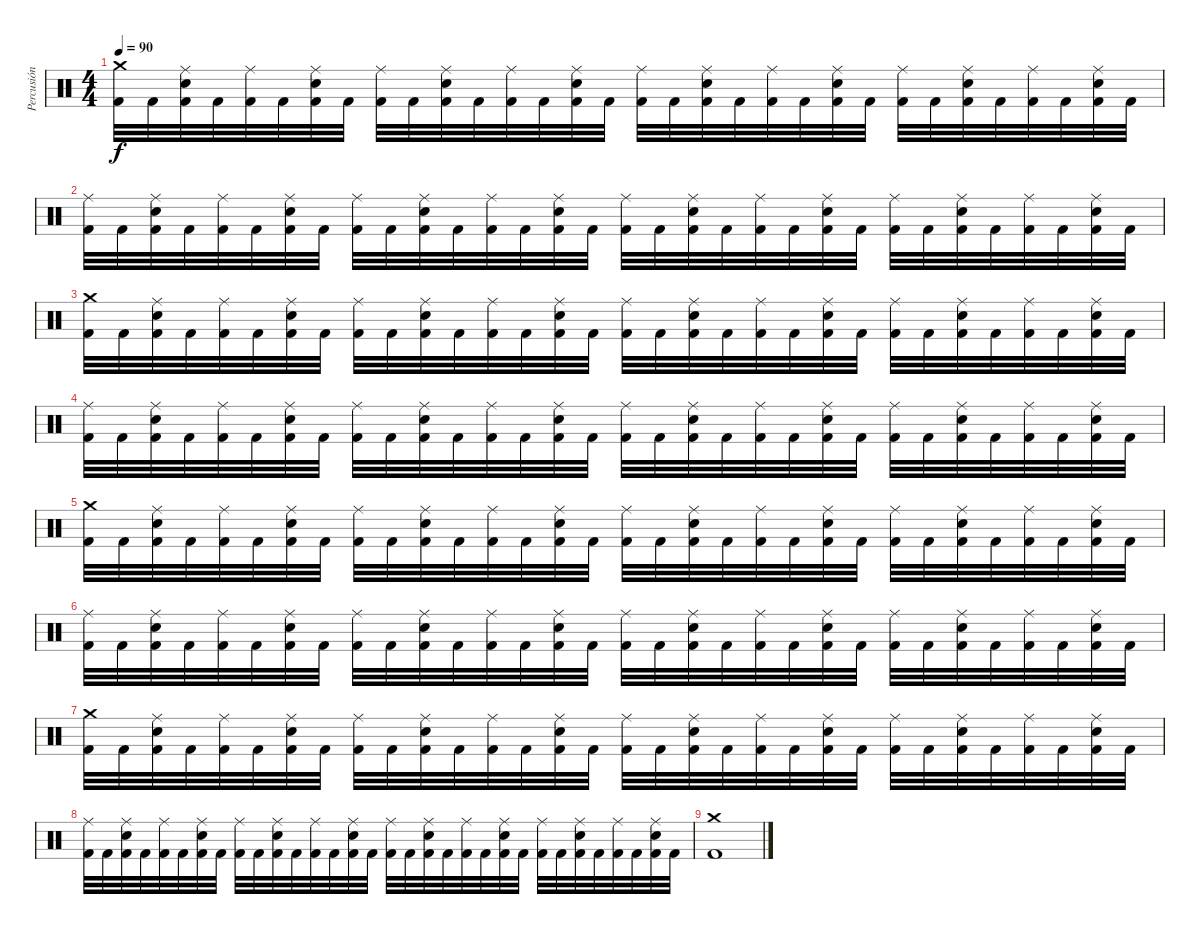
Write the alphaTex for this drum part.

\track ("Percusión" "Percusión") {instrument percussion}
\staff {score}
\articulation defaults
\ts (4 4)
\tempo 90
\clef neutral
\ks c
("Crash medium (hit)" "Kick (hit) 2").32{dy f} "Kick (hit) 2".32 ("Ride (middle)" "Snare (hit) 2" "Kick (hit) 2").32 "Kick (hit) 2".32 ("Ride (middle)" "Kick (hit) 2").32 "Kick (hit) 2".32 ("Ride (middle)" "Snare (hit) 2" "Kick (hit) 2").32 "Kick (hit) 2".32 ("Ride (middle)" "Kick (hit) 2").32 "Kick (hit) 2".32 ("Ride (middle)" "Snare (hit) 2" "Kick (hit) 2").32 "Kick (hit) 2".32 ("Ride (middle)" "Kick (hit) 2").32 "Kick (hit) 2".32 ("Ride (middle)" "Snare (hit) 2" "Kick (hit) 2").32 "Kick (hit) 2".32 ("Ride (middle)" "Kick (hit) 2").32 "Kick (hit) 2".32 ("Ride (middle)" "Snare (hit) 2" "Kick (hit) 2").32 "Kick (hit) 2".32 ("Ride (middle)" "Kick (hit) 2").32 "Kick (hit) 2".32 ("Ride (middle)" "Snare (hit) 2" "Kick (hit) 2").32 "Kick (hit) 2".32 ("Ride (middle)" "Kick (hit) 2").32 "Kick (hit) 2".32 ("Ride (middle)" "Snare (hit) 2" "Kick (hit) 2").32 "Kick (hit) 2".32 ("Ride (middle)" "Kick (hit) 2").32 "Kick (hit) 2".32 ("Ride (middle)" "Snare (hit) 2" "Kick (hit) 2").32 "Kick (hit) 2".32 |
("Ride (middle)" "Kick (hit) 2").32 "Kick (hit) 2".32 ("Ride (middle)" "Snare (hit) 2" "Kick (hit) 2").32 "Kick (hit) 2".32 ("Ride (middle)" "Kick (hit) 2").32 "Kick (hit) 2".32 ("Ride (middle)" "Snare (hit) 2" "Kick (hit) 2").32 "Kick (hit) 2".32 ("Ride (middle)" "Kick (hit) 2").32 "Kick (hit) 2".32 ("Ride (middle)" "Snare (hit) 2" "Kick (hit) 2").32 "Kick (hit) 2".32 ("Ride (middle)" "Kick (hit) 2").32 "Kick (hit) 2".32 ("Ride (middle)" "Snare (hit) 2" "Kick (hit) 2").32 "Kick (hit) 2".32 ("Ride (middle)" "Kick (hit) 2").32 "Kick (hit) 2".32 ("Ride (middle)" "Snare (hit) 2" "Kick (hit) 2").32 "Kick (hit) 2".32 ("Ride (middle)" "Kick (hit) 2").32 "Kick (hit) 2".32 ("Ride (middle)" "Snare (hit) 2" "Kick (hit) 2").32 "Kick (hit) 2".32 ("Ride (middle)" "Kick (hit) 2").32 "Kick (hit) 2".32 ("Ride (middle)" "Snare (hit) 2" "Kick (hit) 2").32 "Kick (hit) 2".32 ("Ride (middle)" "Kick (hit) 2").32 "Kick (hit) 2".32 ("Ride (middle)" "Snare (hit) 2" "Kick (hit) 2").32 "Kick (hit) 2".32 |
("Crash medium (hit)" "Kick (hit) 2").32 "Kick (hit) 2".32 ("Ride (middle)" "Snare (hit) 2" "Kick (hit) 2").32 "Kick (hit) 2".32 ("Ride (middle)" "Kick (hit) 2").32 "Kick (hit) 2".32 ("Ride (middle)" "Snare (hit) 2" "Kick (hit) 2").32 "Kick (hit) 2".32 ("Ride (middle)" "Kick (hit) 2").32 "Kick (hit) 2".32 ("Ride (middle)" "Snare (hit) 2" "Kick (hit) 2").32 "Kick (hit) 2".32 ("Ride (middle)" "Kick (hit) 2").32 "Kick (hit) 2".32 ("Ride (middle)" "Snare (hit) 2" "Kick (hit) 2").32 "Kick (hit) 2".32 ("Ride (middle)" "Kick (hit) 2").32 "Kick (hit) 2".32 ("Ride (middle)" "Snare (hit) 2" "Kick (hit) 2").32 "Kick (hit) 2".32 ("Ride (middle)" "Kick (hit) 2").32 "Kick (hit) 2".32 ("Ride (middle)" "Snare (hit) 2" "Kick (hit) 2").32 "Kick (hit) 2".32 ("Ride (middle)" "Kick (hit) 2").32 "Kick (hit) 2".32 ("Ride (middle)" "Snare (hit) 2" "Kick (hit) 2").32 "Kick (hit) 2".32 ("Ride (middle)" "Kick (hit) 2").32 "Kick (hit) 2".32 ("Ride (middle)" "Snare (hit) 2" "Kick (hit) 2").32 "Kick (hit) 2".32 |
("Ride (middle)" "Kick (hit) 2").32 "Kick (hit) 2".32 ("Ride (middle)" "Snare (hit) 2" "Kick (hit) 2").32 "Kick (hit) 2".32 ("Ride (middle)" "Kick (hit) 2").32 "Kick (hit) 2".32 ("Ride (middle)" "Snare (hit) 2" "Kick (hit) 2").32 "Kick (hit) 2".32 ("Ride (middle)" "Kick (hit) 2").32 "Kick (hit) 2".32 ("Ride (middle)" "Snare (hit) 2" "Kick (hit) 2").32 "Kick (hit) 2".32 ("Ride (middle)" "Kick (hit) 2").32 "Kick (hit) 2".32 ("Ride (middle)" "Snare (hit) 2" "Kick (hit) 2").32 "Kick (hit) 2".32 ("Ride (middle)" "Kick (hit) 2").32 "Kick (hit) 2".32 ("Ride (middle)" "Snare (hit) 2" "Kick (hit) 2").32 "Kick (hit) 2".32 ("Ride (middle)" "Kick (hit) 2").32 "Kick (hit) 2".32 ("Ride (middle)" "Snare (hit) 2" "Kick (hit) 2").32 "Kick (hit) 2".32 ("Ride (middle)" "Kick (hit) 2").32 "Kick (hit) 2".32 ("Ride (middle)" "Snare (hit) 2" "Kick (hit) 2").32 "Kick (hit) 2".32 ("Ride (middle)" "Kick (hit) 2").32 "Kick (hit) 2".32 ("Ride (middle)" "Snare (hit) 2" "Kick (hit) 2").32 "Kick (hit) 2".32 |
("Crash medium (hit)" "Kick (hit) 2").32 "Kick (hit) 2".32 ("Ride (middle)" "Snare (hit) 2" "Kick (hit) 2").32 "Kick (hit) 2".32 ("Ride (middle)" "Kick (hit) 2").32 "Kick (hit) 2".32 ("Ride (middle)" "Snare (hit) 2" "Kick (hit) 2").32 "Kick (hit) 2".32 ("Ride (middle)" "Kick (hit) 2").32 "Kick (hit) 2".32 ("Ride (middle)" "Snare (hit) 2" "Kick (hit) 2").32 "Kick (hit) 2".32 ("Ride (middle)" "Kick (hit) 2").32 "Kick (hit) 2".32 ("Ride (middle)" "Snare (hit) 2" "Kick (hit) 2").32 "Kick (hit) 2".32 ("Ride (middle)" "Kick (hit) 2").32 "Kick (hit) 2".32 ("Ride (middle)" "Snare (hit) 2" "Kick (hit) 2").32 "Kick (hit) 2".32 ("Ride (middle)" "Kick (hit) 2").32 "Kick (hit) 2".32 ("Ride (middle)" "Snare (hit) 2" "Kick (hit) 2").32 "Kick (hit) 2".32 ("Ride (middle)" "Kick (hit) 2").32 "Kick (hit) 2".32 ("Ride (middle)" "Snare (hit) 2" "Kick (hit) 2").32 "Kick (hit) 2".32 ("Ride (middle)" "Kick (hit) 2").32 "Kick (hit) 2".32 ("Ride (middle)" "Snare (hit) 2" "Kick (hit) 2").32 "Kick (hit) 2".32 |
("Ride (middle)" "Kick (hit) 2").32 "Kick (hit) 2".32 ("Ride (middle)" "Snare (hit) 2" "Kick (hit) 2").32 "Kick (hit) 2".32 ("Ride (middle)" "Kick (hit) 2").32 "Kick (hit) 2".32 ("Ride (middle)" "Snare (hit) 2" "Kick (hit) 2").32 "Kick (hit) 2".32 ("Ride (middle)" "Kick (hit) 2").32 "Kick (hit) 2".32 ("Ride (middle)" "Snare (hit) 2" "Kick (hit) 2").32 "Kick (hit) 2".32 ("Ride (middle)" "Kick (hit) 2").32 "Kick (hit) 2".32 ("Ride (middle)" "Snare (hit) 2" "Kick (hit) 2").32 "Kick (hit) 2".32 ("Ride (middle)" "Kick (hit) 2").32 "Kick (hit) 2".32 ("Ride (middle)" "Snare (hit) 2" "Kick (hit) 2").32 "Kick (hit) 2".32 ("Ride (middle)" "Kick (hit) 2").32 "Kick (hit) 2".32 ("Ride (middle)" "Snare (hit) 2" "Kick (hit) 2").32 "Kick (hit) 2".32 ("Ride (middle)" "Kick (hit) 2").32 "Kick (hit) 2".32 ("Ride (middle)" "Snare (hit) 2" "Kick (hit) 2").32 "Kick (hit) 2".32 ("Ride (middle)" "Kick (hit) 2").32 "Kick (hit) 2".32 ("Ride (middle)" "Snare (hit) 2" "Kick (hit) 2").32 "Kick (hit) 2".32 |
("Crash medium (hit)" "Kick (hit) 2").32 "Kick (hit) 2".32 ("Ride (middle)" "Snare (hit) 2" "Kick (hit) 2").32 "Kick (hit) 2".32 ("Ride (middle)" "Kick (hit) 2").32 "Kick (hit) 2".32 ("Ride (middle)" "Snare (hit) 2" "Kick (hit) 2").32 "Kick (hit) 2".32 ("Ride (middle)" "Kick (hit) 2").32 "Kick (hit) 2".32 ("Ride (middle)" "Snare (hit) 2" "Kick (hit) 2").32 "Kick (hit) 2".32 ("Ride (middle)" "Kick (hit) 2").32 "Kick (hit) 2".32 ("Ride (middle)" "Snare (hit) 2" "Kick (hit) 2").32 "Kick (hit) 2".32 ("Ride (middle)" "Kick (hit) 2").32 "Kick (hit) 2".32 ("Ride (middle)" "Snare (hit) 2" "Kick (hit) 2").32 "Kick (hit) 2".32 ("Ride (middle)" "Kick (hit) 2").32 "Kick (hit) 2".32 ("Ride (middle)" "Snare (hit) 2" "Kick (hit) 2").32 "Kick (hit) 2".32 ("Ride (middle)" "Kick (hit) 2").32 "Kick (hit) 2".32 ("Ride (middle)" "Snare (hit) 2" "Kick (hit) 2").32 "Kick (hit) 2".32 ("Ride (middle)" "Kick (hit) 2").32 "Kick (hit) 2".32 ("Ride (middle)" "Snare (hit) 2" "Kick (hit) 2").32 "Kick (hit) 2".32 |
("Ride (middle)" "Kick (hit) 2").32 "Kick (hit) 2".32 ("Ride (middle)" "Snare (hit) 2" "Kick (hit) 2").32 "Kick (hit) 2".32 ("Ride (middle)" "Kick (hit) 2").32 "Kick (hit) 2".32 ("Ride (middle)" "Snare (hit) 2" "Kick (hit) 2").32 "Kick (hit) 2".32 ("Ride (middle)" "Kick (hit) 2").32 "Kick (hit) 2".32 ("Ride (middle)" "Snare (hit) 2" "Kick (hit) 2").32 "Kick (hit) 2".32 ("Ride (middle)" "Kick (hit) 2").32 "Kick (hit) 2".32 ("Ride (middle)" "Snare (hit) 2" "Kick (hit) 2").32 "Kick (hit) 2".32 ("Ride (middle)" "Kick (hit) 2").32 "Kick (hit) 2".32 ("Ride (middle)" "Snare (hit) 2" "Kick (hit) 2").32 "Kick (hit) 2".32 ("Ride (middle)" "Kick (hit) 2").32 "Kick (hit) 2".32 ("Ride (middle)" "Snare (hit) 2" "Kick (hit) 2").32 "Kick (hit) 2".32 ("Ride (middle)" "Kick (hit) 2").32 "Kick (hit) 2".32 ("Ride (middle)" "Snare (hit) 2" "Kick (hit) 2").32 "Kick (hit) 2".32 ("Ride (middle)" "Kick (hit) 2").32 "Kick (hit) 2".32 ("Ride (middle)" "Snare (hit) 2" "Kick (hit) 2").32 "Kick (hit) 2".32 |
("Crash medium (hit)" "Kick (hit) 2").1
